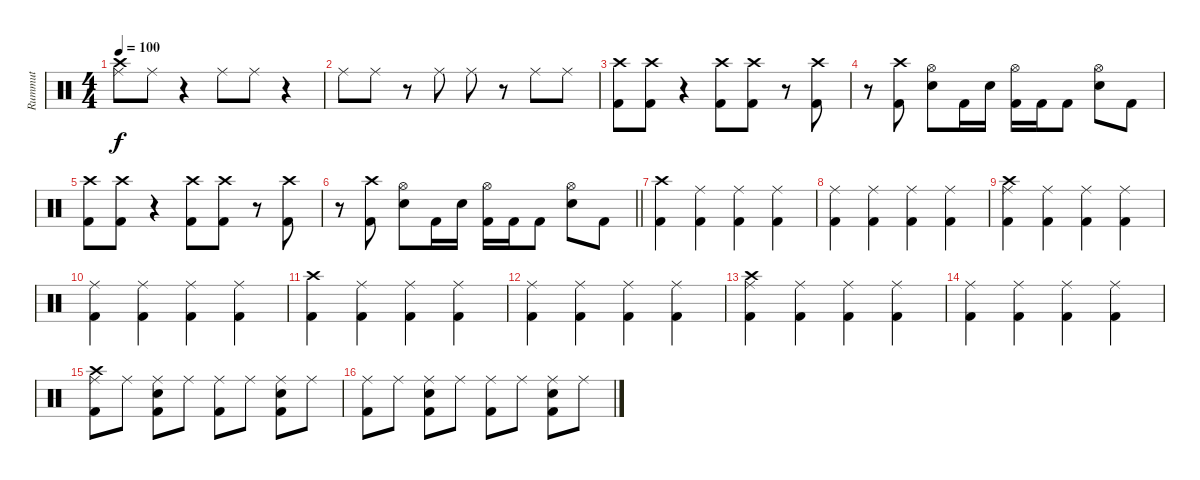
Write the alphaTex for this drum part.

\track ("Rummut" "Rummut") {instrument percussion}
\staff {score}
\articulation defaults
\ts (4 4)
\tempo 100
\clef neutral
\ks c
("Crash high (hit)" "Ride (middle)").8{dy f} "Ride (middle)".8 r.4 "Ride (middle)".8 "Ride (middle)".8 r.4 |
"Ride (middle)".8 "Ride (middle)".8 r.8 "Ride (middle)".8 "Ride (middle)".8 r.8 "Ride (middle)".8 "Ride (middle)".8 |
("Crash high (hit)" "Kick (hit) 2").8 ("Crash high (hit)" "Kick (hit) 2").8 r.4 ("Crash high (hit)" "Kick (hit) 2").8 ("Crash high (hit)" "Kick (hit) 2").8 r.8 ("Crash high (hit)" "Kick (hit) 2").8 |
r.8 ("Crash high (hit)" "Kick (hit) 2").8 ("Hi-Hat (open)" "Snare (hit) 2").8 "Kick (hit) 2".16 "Snare (hit) 2".16 ("Hi-Hat (open)" "Kick (hit) 2").16 "Kick (hit) 2".16 "Kick (hit) 2".8 ("Hi-Hat (open)" "Snare (hit) 2").8 "Kick (hit) 2".8 |
("Crash high (hit)" "Kick (hit) 2").8 ("Crash high (hit)" "Kick (hit) 2").8 r.4 ("Crash high (hit)" "Kick (hit) 2").8 ("Crash high (hit)" "Kick (hit) 2").8 r.8 ("Crash high (hit)" "Kick (hit) 2").8 |
\barLineRight lightlight
r.8 ("Crash high (hit)" "Kick (hit) 2").8 ("Hi-Hat (open)" "Snare (hit) 2").8 "Kick (hit) 2".16 "Snare (hit) 2".16 ("Hi-Hat (open)" "Kick (hit) 2").16 "Kick (hit) 2".16 "Kick (hit) 2".8 ("Hi-Hat (open)" "Snare (hit) 2").8 "Kick (hit) 2".8 |
("Crash high (hit)" "Kick (hit) 2").4 ("Ride (middle)" "Kick (hit) 2").4 ("Ride (middle)" "Kick (hit) 2").4 ("Ride (middle)" "Kick (hit) 2").4 |
("Ride (middle)" "Kick (hit) 2").4 ("Ride (middle)" "Kick (hit) 2").4 ("Ride (middle)" "Kick (hit) 2").4 ("Ride (middle)" "Kick (hit) 2").4 |
("Crash high (hit)" "Ride (middle)" "Kick (hit) 2").4 ("Ride (middle)" "Kick (hit) 2").4 ("Ride (middle)" "Kick (hit) 2").4 ("Ride (middle)" "Kick (hit) 2").4 |
("Ride (middle)" "Kick (hit) 2").4 ("Ride (middle)" "Kick (hit) 2").4 ("Ride (middle)" "Kick (hit) 2").4 ("Ride (middle)" "Kick (hit) 2").4 |
("Crash high (hit)" "Kick (hit) 2").4 ("Ride (middle)" "Kick (hit) 2").4 ("Ride (middle)" "Kick (hit) 2").4 ("Ride (middle)" "Kick (hit) 2").4 |
("Ride (middle)" "Kick (hit) 2").4 ("Ride (middle)" "Kick (hit) 2").4 ("Ride (middle)" "Kick (hit) 2").4 ("Ride (middle)" "Kick (hit) 2").4 |
("Crash high (hit)" "Ride (middle)" "Kick (hit) 2").4 ("Ride (middle)" "Kick (hit) 2").4 ("Ride (middle)" "Kick (hit) 2").4 ("Ride (middle)" "Kick (hit) 2").4 |
("Ride (middle)" "Kick (hit) 2").4 ("Ride (middle)" "Kick (hit) 2").4 ("Ride (middle)" "Kick (hit) 2").4 ("Ride (middle)" "Kick (hit) 2").4 |
("Crash high (hit)" "Ride (middle)" "Kick (hit) 2").8 "Ride (middle)".8 ("Ride (middle)" "Snare (hit) 2" "Kick (hit) 2").8 "Ride (middle)".8 ("Ride (middle)" "Kick (hit) 2").8 "Ride (middle)".8 ("Ride (middle)" "Snare (hit) 2" "Kick (hit) 2").8 "Ride (middle)".8 |
("Ride (middle)" "Kick (hit) 2").8 "Ride (middle)".8 ("Ride (middle)" "Snare (hit) 2" "Kick (hit) 2").8 "Ride (middle)".8 ("Ride (middle)" "Kick (hit) 2").8 "Ride (middle)".8 ("Ride (middle)" "Snare (hit) 2" "Kick (hit) 2").8 "Ride (middle)".8
